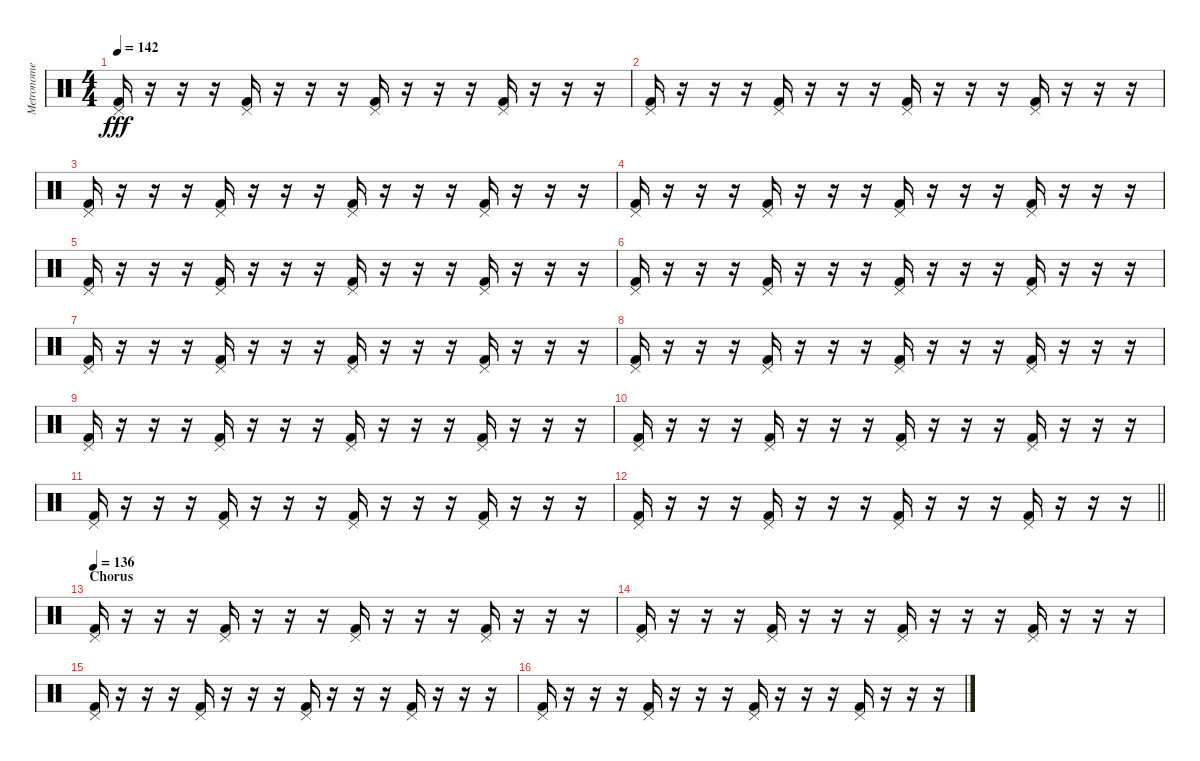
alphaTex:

\track ("Metronome" "Metronome") {mute instrument percussion}
\staff {score}
\articulation defaults
\ts (4 4)
\tempo 142
\clef neutral
\ks c
("Pedal Hi-Hat (hit)" "Kick (hit) 2").16{dy fff} r.16 r.16 r.16 ("Pedal Hi-Hat (hit)" "Kick (hit) 2").16 r.16 r.16 r.16 ("Pedal Hi-Hat (hit)" "Kick (hit) 2").16 r.16 r.16 r.16 ("Pedal Hi-Hat (hit)" "Kick (hit) 2").16 r.16 r.16 r.16 |
("Pedal Hi-Hat (hit)" "Kick (hit) 2").16 r.16 r.16 r.16 ("Pedal Hi-Hat (hit)" "Kick (hit) 2").16 r.16 r.16 r.16 ("Pedal Hi-Hat (hit)" "Kick (hit) 2").16 r.16 r.16 r.16 ("Pedal Hi-Hat (hit)" "Kick (hit) 2").16 r.16 r.16 r.16 |
("Pedal Hi-Hat (hit)" "Kick (hit) 2").16 r.16 r.16 r.16 ("Pedal Hi-Hat (hit)" "Kick (hit) 2").16 r.16 r.16 r.16 ("Pedal Hi-Hat (hit)" "Kick (hit) 2").16 r.16 r.16 r.16 ("Pedal Hi-Hat (hit)" "Kick (hit) 2").16 r.16 r.16 r.16 |
("Pedal Hi-Hat (hit)" "Kick (hit) 2").16 r.16 r.16 r.16 ("Pedal Hi-Hat (hit)" "Kick (hit) 2").16 r.16 r.16 r.16 ("Pedal Hi-Hat (hit)" "Kick (hit) 2").16 r.16 r.16 r.16 ("Pedal Hi-Hat (hit)" "Kick (hit) 2").16 r.16 r.16 r.16 |
("Pedal Hi-Hat (hit)" "Kick (hit) 2").16 r.16 r.16 r.16 ("Pedal Hi-Hat (hit)" "Kick (hit) 2").16 r.16 r.16 r.16 ("Pedal Hi-Hat (hit)" "Kick (hit) 2").16 r.16 r.16 r.16 ("Pedal Hi-Hat (hit)" "Kick (hit) 2").16 r.16 r.16 r.16 |
("Pedal Hi-Hat (hit)" "Kick (hit) 2").16 r.16 r.16 r.16 ("Pedal Hi-Hat (hit)" "Kick (hit) 2").16 r.16 r.16 r.16 ("Pedal Hi-Hat (hit)" "Kick (hit) 2").16 r.16 r.16 r.16 ("Pedal Hi-Hat (hit)" "Kick (hit) 2").16 r.16 r.16 r.16 |
("Pedal Hi-Hat (hit)" "Kick (hit) 2").16 r.16 r.16 r.16 ("Pedal Hi-Hat (hit)" "Kick (hit) 2").16 r.16 r.16 r.16 ("Pedal Hi-Hat (hit)" "Kick (hit) 2").16 r.16 r.16 r.16 ("Pedal Hi-Hat (hit)" "Kick (hit) 2").16 r.16 r.16 r.16 |
("Pedal Hi-Hat (hit)" "Kick (hit) 2").16 r.16 r.16 r.16 ("Pedal Hi-Hat (hit)" "Kick (hit) 2").16 r.16 r.16 r.16 ("Pedal Hi-Hat (hit)" "Kick (hit) 2").16 r.16 r.16 r.16 ("Pedal Hi-Hat (hit)" "Kick (hit) 2").16 r.16 r.16 r.16 |
("Pedal Hi-Hat (hit)" "Kick (hit) 2").16 r.16 r.16 r.16 ("Pedal Hi-Hat (hit)" "Kick (hit) 2").16 r.16 r.16 r.16 ("Pedal Hi-Hat (hit)" "Kick (hit) 2").16 r.16 r.16 r.16 ("Pedal Hi-Hat (hit)" "Kick (hit) 2").16 r.16 r.16 r.16 |
("Pedal Hi-Hat (hit)" "Kick (hit) 2").16 r.16 r.16 r.16 ("Pedal Hi-Hat (hit)" "Kick (hit) 2").16 r.16 r.16 r.16 ("Pedal Hi-Hat (hit)" "Kick (hit) 2").16 r.16 r.16 r.16 ("Pedal Hi-Hat (hit)" "Kick (hit) 2").16 r.16 r.16 r.16 |
("Pedal Hi-Hat (hit)" "Kick (hit) 2").16 r.16 r.16 r.16 ("Pedal Hi-Hat (hit)" "Kick (hit) 2").16 r.16 r.16 r.16 ("Pedal Hi-Hat (hit)" "Kick (hit) 2").16 r.16 r.16 r.16 ("Pedal Hi-Hat (hit)" "Kick (hit) 2").16 r.16 r.16 r.16 |
\barLineRight lightlight
("Pedal Hi-Hat (hit)" "Kick (hit) 2").16 r.16 r.16 r.16 ("Pedal Hi-Hat (hit)" "Kick (hit) 2").16 r.16 r.16 r.16 ("Pedal Hi-Hat (hit)" "Kick (hit) 2").16 r.16 r.16 r.16 ("Pedal Hi-Hat (hit)" "Kick (hit) 2").16 r.16 r.16 r.16 |
\section ("" "Chorus")
\tempo 136
("Pedal Hi-Hat (hit)" "Kick (hit) 2").16 r.16 r.16 r.16 ("Pedal Hi-Hat (hit)" "Kick (hit) 2").16 r.16 r.16 r.16 ("Pedal Hi-Hat (hit)" "Kick (hit) 2").16 r.16 r.16 r.16 ("Pedal Hi-Hat (hit)" "Kick (hit) 2").16 r.16 r.16 r.16 |
("Pedal Hi-Hat (hit)" "Kick (hit) 2").16 r.16 r.16 r.16 ("Pedal Hi-Hat (hit)" "Kick (hit) 2").16 r.16 r.16 r.16 ("Pedal Hi-Hat (hit)" "Kick (hit) 2").16 r.16 r.16 r.16 ("Pedal Hi-Hat (hit)" "Kick (hit) 2").16 r.16 r.16 r.16 |
("Pedal Hi-Hat (hit)" "Kick (hit) 2").16 r.16 r.16 r.16 ("Pedal Hi-Hat (hit)" "Kick (hit) 2").16 r.16 r.16 r.16 ("Pedal Hi-Hat (hit)" "Kick (hit) 2").16 r.16 r.16 r.16 ("Pedal Hi-Hat (hit)" "Kick (hit) 2").16 r.16 r.16 r.16 |
("Pedal Hi-Hat (hit)" "Kick (hit) 2").16 r.16 r.16 r.16 ("Pedal Hi-Hat (hit)" "Kick (hit) 2").16 r.16 r.16 r.16 ("Pedal Hi-Hat (hit)" "Kick (hit) 2").16 r.16 r.16 r.16 ("Pedal Hi-Hat (hit)" "Kick (hit) 2").16 r.16 r.16 r.16
